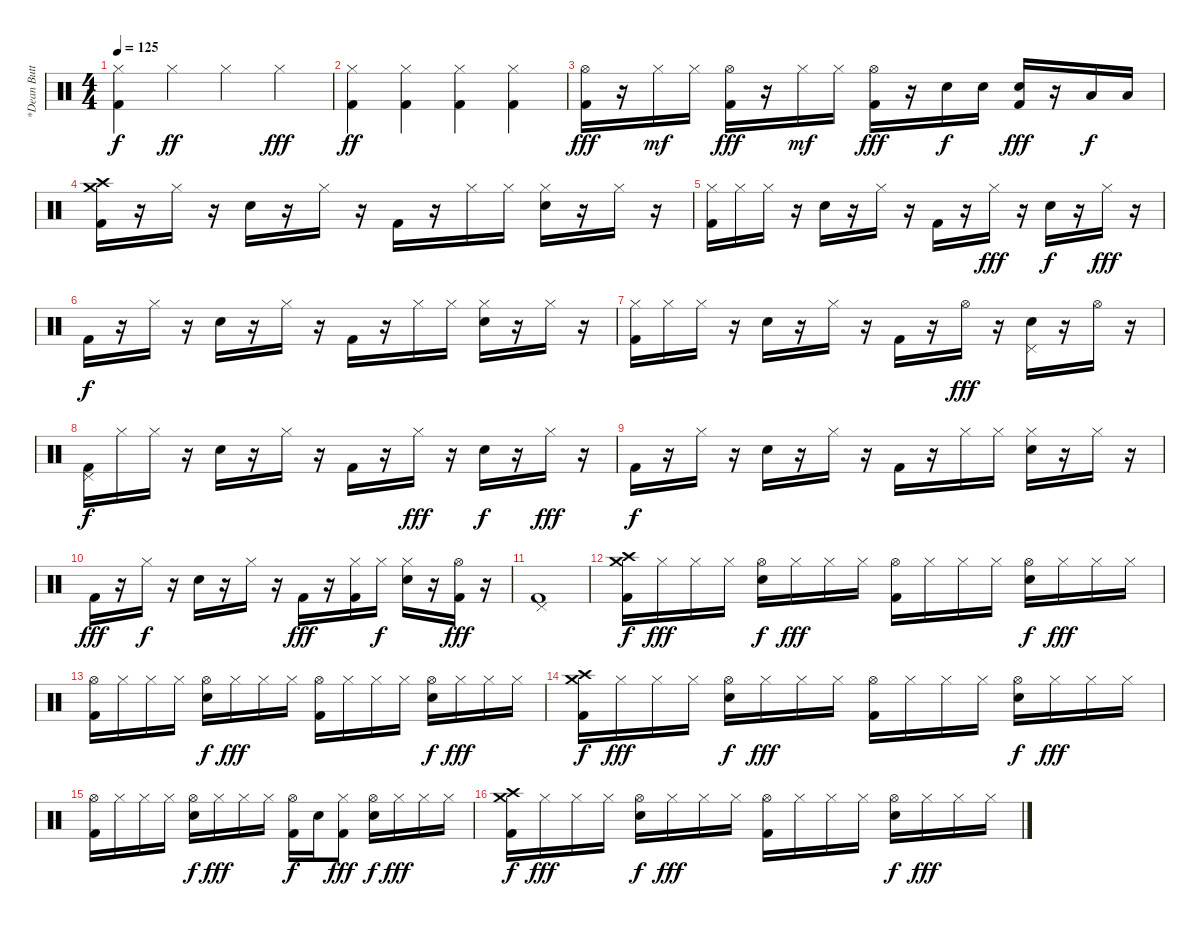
\track ("*Dean Butterworth (Drum)" "*Dean Butt") {instrument percussion}
\staff {score}
\articulation defaults
\ts (4 4)
\tempo 125
\clef neutral
\ks c
("Hi-Hat (closed)" "Kick (hit) 2").4{dy f} "Hi-Hat (closed)".4{dy ff} "Hi-Hat (closed)".4 "Hi-Hat (closed)".4{dy fff} |
("Hi-Hat (closed)" "Kick (hit) 2").4{dy ff} ("Hi-Hat (closed)" "Kick (hit) 2").4 ("Hi-Hat (closed)" "Kick (hit) 2").4 ("Hi-Hat (closed)" "Kick (hit) 2").4 |
("Hi-Hat (open)" "Kick (hit) 2").16{dy fff} r.16 "Hi-Hat (closed)".16{dy mf} "Hi-Hat (closed)".16 ("Hi-Hat (open)" "Kick (hit) 2").16{dy fff} r.16 "Hi-Hat (closed)".16{dy mf} "Hi-Hat (closed)".16 ("Hi-Hat (open)" "Kick (hit) 2").16{dy fff} r.16 "Snare (hit) 2".16{dy f} "Snare (hit) 2".16 ("Snare (hit) 2" "Kick (hit) 2").16{dy fff} r.16 "Low Tom (hit)".16{dy f} "Low Tom (hit)".16 |
("Crash high (hit)" "Crash medium (hit)" "Kick (hit) 2").16 r.16 "Hi-Hat (closed)".16 r.16 "Snare (hit) 2".16 r.16 "Hi-Hat (closed)".16 r.16 "Kick (hit) 2".16 r.16 "Hi-Hat (closed)".16 "Hi-Hat (closed)".16 ("Hi-Hat (closed)" "Snare (hit) 2").16 r.16 "Hi-Hat (closed)".16 r.16 |
("Hi-Hat (closed)" "Kick (hit) 2").16 "Hi-Hat (closed)".16 "Hi-Hat (closed)".16 r.16 "Snare (hit) 2".16 r.16 "Hi-Hat (closed)".16 r.16 "Kick (hit) 2".16 r.16 "Hi-Hat (closed)".16{dy fff} r.16 "Snare (hit) 2".16{dy f} r.16 "Hi-Hat (closed)".16{dy fff} r.16 |
"Kick (hit) 2".16{dy f} r.16 "Hi-Hat (closed)".16 r.16 "Snare (hit) 2".16 r.16 "Hi-Hat (closed)".16 r.16 "Kick (hit) 2".16 r.16 "Hi-Hat (closed)".16 "Hi-Hat (closed)".16 ("Hi-Hat (closed)" "Snare (hit) 2").16 r.16 "Hi-Hat (closed)".16 r.16 |
("Hi-Hat (closed)" "Kick (hit) 2").16 "Hi-Hat (closed)".16 "Hi-Hat (closed)".16 r.16 "Snare (hit) 2".16 r.16 "Hi-Hat (closed)".16 r.16 "Kick (hit) 2".16 r.16 "Hi-Hat (open)".16{dy fff} r.16 ("Pedal Hi-Hat (hit)" "Snare (hit) 2").16 r.16 "Hi-Hat (open)".16 r.16 |
("Pedal Hi-Hat (hit)" "Kick (hit) 2").16{dy f} "Hi-Hat (closed)".16 "Hi-Hat (closed)".16 r.16 "Snare (hit) 2".16 r.16 "Hi-Hat (closed)".16 r.16 "Kick (hit) 2".16 r.16 "Hi-Hat (closed)".16{dy fff} r.16 "Snare (hit) 2".16{dy f} r.16 "Hi-Hat (closed)".16{dy fff} r.16 |
"Kick (hit) 2".16{dy f} r.16 "Hi-Hat (closed)".16 r.16 "Snare (hit) 2".16 r.16 "Hi-Hat (closed)".16 r.16 "Kick (hit) 2".16 r.16 "Hi-Hat (closed)".16 "Hi-Hat (closed)".16 ("Hi-Hat (closed)" "Snare (hit) 2").16 r.16 "Hi-Hat (closed)".16 r.16 |
"Kick (hit) 2".16{dy fff} r.16 "Hi-Hat (closed)".16{dy f} r.16 "Snare (hit) 2".16 r.16 "Hi-Hat (closed)".16 r.16 "Kick (hit) 2".16{dy fff} r.16 ("Hi-Hat (closed)" "Kick (hit) 2").16 "Hi-Hat (closed)".16{dy f} ("Hi-Hat (closed)" "Snare (hit) 2").16 r.16 ("Hi-Hat (open)" "Kick (hit) 2").16{dy fff} r.16 |
("Pedal Hi-Hat (hit)" "Kick (hit) 2").1 |
("Crash high (hit)" "Crash medium (hit)" "Kick (hit) 2").16{dy f} "Hi-Hat (closed)".16{dy fff} "Hi-Hat (closed)".16 "Hi-Hat (closed)".16 ("Hi-Hat (open)" "Electric Snare (hit)").16{dy f} "Hi-Hat (closed)".16{dy fff} "Hi-Hat (closed)".16 "Hi-Hat (closed)".16 ("Hi-Hat (open)" "Kick (hit) 2").16 "Hi-Hat (closed)".16 "Hi-Hat (closed)".16 "Hi-Hat (closed)".16 ("Hi-Hat (open)" "Electric Snare (hit)").16{dy f} "Hi-Hat (closed)".16{dy fff} "Hi-Hat (closed)".16 "Hi-Hat (closed)".16 |
("Hi-Hat (open)" "Kick (hit) 2").16 "Hi-Hat (closed)".16 "Hi-Hat (closed)".16 "Hi-Hat (closed)".16 ("Hi-Hat (open)" "Electric Snare (hit)").16{dy f} "Hi-Hat (closed)".16{dy fff} "Hi-Hat (closed)".16 "Hi-Hat (closed)".16 ("Hi-Hat (open)" "Kick (hit) 2").16 "Hi-Hat (closed)".16 "Hi-Hat (closed)".16 "Hi-Hat (closed)".16 ("Hi-Hat (open)" "Electric Snare (hit)").16{dy f} "Hi-Hat (closed)".16{dy fff} "Hi-Hat (closed)".16 "Hi-Hat (closed)".16 |
("Crash high (hit)" "Crash medium (hit)" "Kick (hit) 2").16{dy f} "Hi-Hat (closed)".16{dy fff} "Hi-Hat (closed)".16 "Hi-Hat (closed)".16 ("Hi-Hat (open)" "Electric Snare (hit)").16{dy f} "Hi-Hat (closed)".16{dy fff} "Hi-Hat (closed)".16 "Hi-Hat (closed)".16 ("Hi-Hat (open)" "Kick (hit) 2").16 "Hi-Hat (closed)".16 "Hi-Hat (closed)".16 "Hi-Hat (closed)".16 ("Hi-Hat (open)" "Electric Snare (hit)").16{dy f} "Hi-Hat (closed)".16{dy fff} "Hi-Hat (closed)".16 "Hi-Hat (closed)".16 |
("Hi-Hat (open)" "Kick (hit) 2").16 "Hi-Hat (closed)".16 "Hi-Hat (closed)".16 "Hi-Hat (closed)".16 ("Hi-Hat (open)" "Electric Snare (hit)").16{dy f} "Hi-Hat (closed)".16{dy fff} "Hi-Hat (closed)".16 "Hi-Hat (closed)".16 ("Hi-Hat (open)" "Kick (hit) 2").16{dy f} "Electric Snare (hit)".16 ("Hi-Hat (closed)" "Kick (hit) 2").8{dy fff} ("Hi-Hat (open)" "Electric Snare (hit)").16{dy f} "Hi-Hat (closed)".16{dy fff} "Hi-Hat (closed)".16 "Hi-Hat (closed)".16 |
("Crash high (hit)" "Crash medium (hit)" "Kick (hit) 2").16{dy f} "Hi-Hat (closed)".16{dy fff} "Hi-Hat (closed)".16 "Hi-Hat (closed)".16 ("Hi-Hat (open)" "Electric Snare (hit)").16{dy f} "Hi-Hat (closed)".16{dy fff} "Hi-Hat (closed)".16 "Hi-Hat (closed)".16 ("Hi-Hat (open)" "Kick (hit) 2").16 "Hi-Hat (closed)".16 "Hi-Hat (closed)".16 "Hi-Hat (closed)".16 ("Hi-Hat (open)" "Electric Snare (hit)").16{dy f} "Hi-Hat (closed)".16{dy fff} "Hi-Hat (closed)".16 "Hi-Hat (closed)".16
